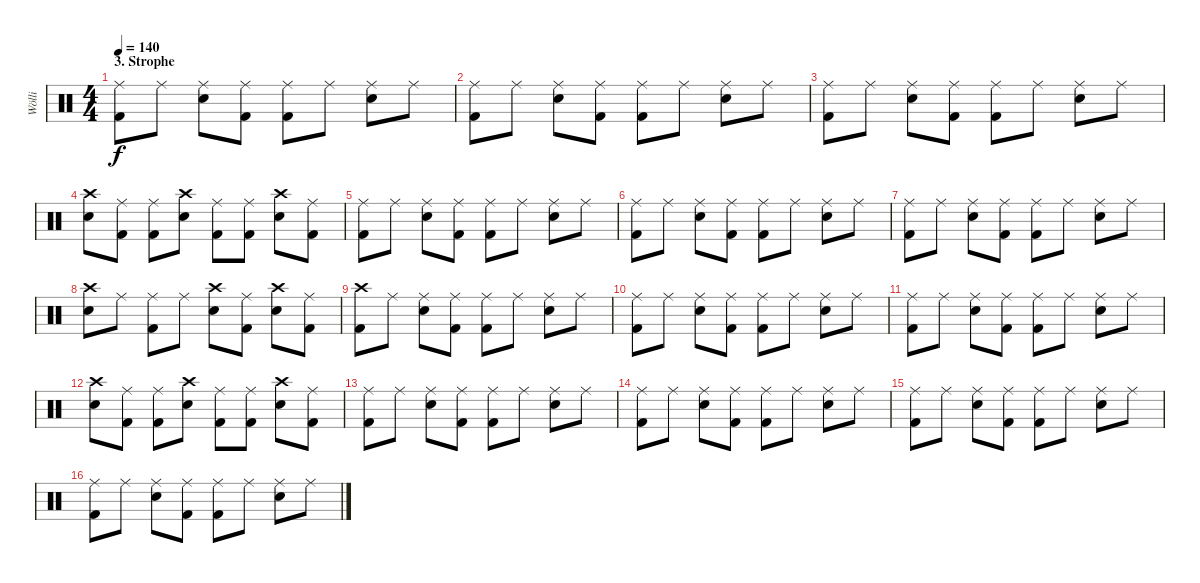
\track ("Wölli" "Wölli") {instrument percussion}
\staff {score}
\articulation defaults
\ts (4 4)
\section ("" "3. Strophe")
\tempo 140
\clef neutral
\ks c
("Ride (middle)" "Kick (hit) 2").8{dy f} "Ride (middle)".8 ("Ride (middle)" "Snare (hit) 2").8 ("Ride (middle)" "Kick (hit) 2").8 ("Ride (middle)" "Kick (hit) 2").8 "Ride (middle)".8 ("Ride (middle)" "Snare (hit) 2").8 "Ride (middle)".8 |
("Ride (middle)" "Kick (hit) 2").8 "Ride (middle)".8 ("Ride (middle)" "Snare (hit) 2").8 ("Ride (middle)" "Kick (hit) 2").8 ("Ride (middle)" "Kick (hit) 2").8 "Ride (middle)".8 ("Ride (middle)" "Snare (hit) 2").8 "Ride (middle)".8 |
("Ride (middle)" "Kick (hit) 2").8 "Ride (middle)".8 ("Ride (middle)" "Snare (hit) 2").8 ("Ride (middle)" "Kick (hit) 2").8 ("Ride (middle)" "Kick (hit) 2").8 "Ride (middle)".8 ("Ride (middle)" "Snare (hit) 2").8 "Ride (middle)".8 |
("Crash high (hit)" "Snare (hit) 2").8 ("Ride (middle)" "Kick (hit) 2").8 ("Ride (middle)" "Kick (hit) 2").8 ("Crash high (hit)" "Snare (hit) 2").8 ("Ride (middle)" "Kick (hit) 2").8 ("Ride (middle)" "Kick (hit) 2").8 ("Crash high (hit)" "Snare (hit) 2").8 ("Ride (middle)" "Kick (hit) 2").8 |
("Ride (middle)" "Kick (hit) 2").8 "Ride (middle)".8 ("Ride (middle)" "Snare (hit) 2").8 ("Ride (middle)" "Kick (hit) 2").8 ("Ride (middle)" "Kick (hit) 2").8 "Ride (middle)".8 ("Ride (middle)" "Snare (hit) 2").8 "Ride (middle)".8 |
("Ride (middle)" "Kick (hit) 2").8 "Ride (middle)".8 ("Ride (middle)" "Snare (hit) 2").8 ("Ride (middle)" "Kick (hit) 2").8 ("Ride (middle)" "Kick (hit) 2").8 "Ride (middle)".8 ("Ride (middle)" "Snare (hit) 2").8 "Ride (middle)".8 |
("Ride (middle)" "Kick (hit) 2").8 "Ride (middle)".8 ("Ride (middle)" "Snare (hit) 2").8 ("Ride (middle)" "Kick (hit) 2").8 ("Ride (middle)" "Kick (hit) 2").8 "Ride (middle)".8 ("Ride (middle)" "Snare (hit) 2").8 "Ride (middle)".8 |
("Crash high (hit)" "Snare (hit) 2").8 "Ride (middle)".8 ("Ride (middle)" "Kick (hit) 2").8 "Ride (middle)".8 ("Crash high (hit)" "Snare (hit) 2").8 ("Ride (middle)" "Kick (hit) 2").8 ("Crash high (hit)" "Snare (hit) 2").8 ("Ride (middle)" "Kick (hit) 2").8 |
("Crash high (hit)" "Kick (hit) 2").8 "Ride (middle)".8 ("Ride (middle)" "Snare (hit) 2").8 ("Ride (middle)" "Kick (hit) 2").8 ("Ride (middle)" "Kick (hit) 2").8 "Ride (middle)".8 ("Ride (middle)" "Snare (hit) 2").8 "Ride (middle)".8 |
("Ride (middle)" "Kick (hit) 2").8 "Ride (middle)".8 ("Ride (middle)" "Snare (hit) 2").8 ("Ride (middle)" "Kick (hit) 2").8 ("Ride (middle)" "Kick (hit) 2").8 "Ride (middle)".8 ("Ride (middle)" "Snare (hit) 2").8 "Ride (middle)".8 |
("Ride (middle)" "Kick (hit) 2").8 "Ride (middle)".8 ("Ride (middle)" "Snare (hit) 2").8 ("Ride (middle)" "Kick (hit) 2").8 ("Ride (middle)" "Kick (hit) 2").8 "Ride (middle)".8 ("Ride (middle)" "Snare (hit) 2").8 "Ride (middle)".8 |
("Crash high (hit)" "Snare (hit) 2").8 ("Ride (middle)" "Kick (hit) 2").8 ("Ride (middle)" "Kick (hit) 2").8 ("Crash high (hit)" "Snare (hit) 2").8 ("Ride (middle)" "Kick (hit) 2").8 ("Ride (middle)" "Kick (hit) 2").8 ("Crash high (hit)" "Snare (hit) 2").8 ("Ride (middle)" "Kick (hit) 2").8 |
("Ride (middle)" "Kick (hit) 2").8 "Ride (middle)".8 ("Ride (middle)" "Snare (hit) 2").8 ("Ride (middle)" "Kick (hit) 2").8 ("Ride (middle)" "Kick (hit) 2").8 "Ride (middle)".8 ("Ride (middle)" "Snare (hit) 2").8 "Ride (middle)".8 |
("Ride (middle)" "Kick (hit) 2").8 "Ride (middle)".8 ("Ride (middle)" "Snare (hit) 2").8 ("Ride (middle)" "Kick (hit) 2").8 ("Ride (middle)" "Kick (hit) 2").8 "Ride (middle)".8 ("Ride (middle)" "Snare (hit) 2").8 "Ride (middle)".8 |
("Ride (middle)" "Kick (hit) 2").8 "Ride (middle)".8 ("Ride (middle)" "Snare (hit) 2").8 ("Ride (middle)" "Kick (hit) 2").8 ("Ride (middle)" "Kick (hit) 2").8 "Ride (middle)".8 ("Ride (middle)" "Snare (hit) 2").8 "Ride (middle)".8 |
("Ride (middle)" "Kick (hit) 2").8 "Ride (middle)".8 ("Ride (middle)" "Snare (hit) 2").8 ("Ride (middle)" "Kick (hit) 2").8 ("Ride (middle)" "Kick (hit) 2").8 "Ride (middle)".8 ("Ride (middle)" "Snare (hit) 2").8 "Ride (middle)".8
